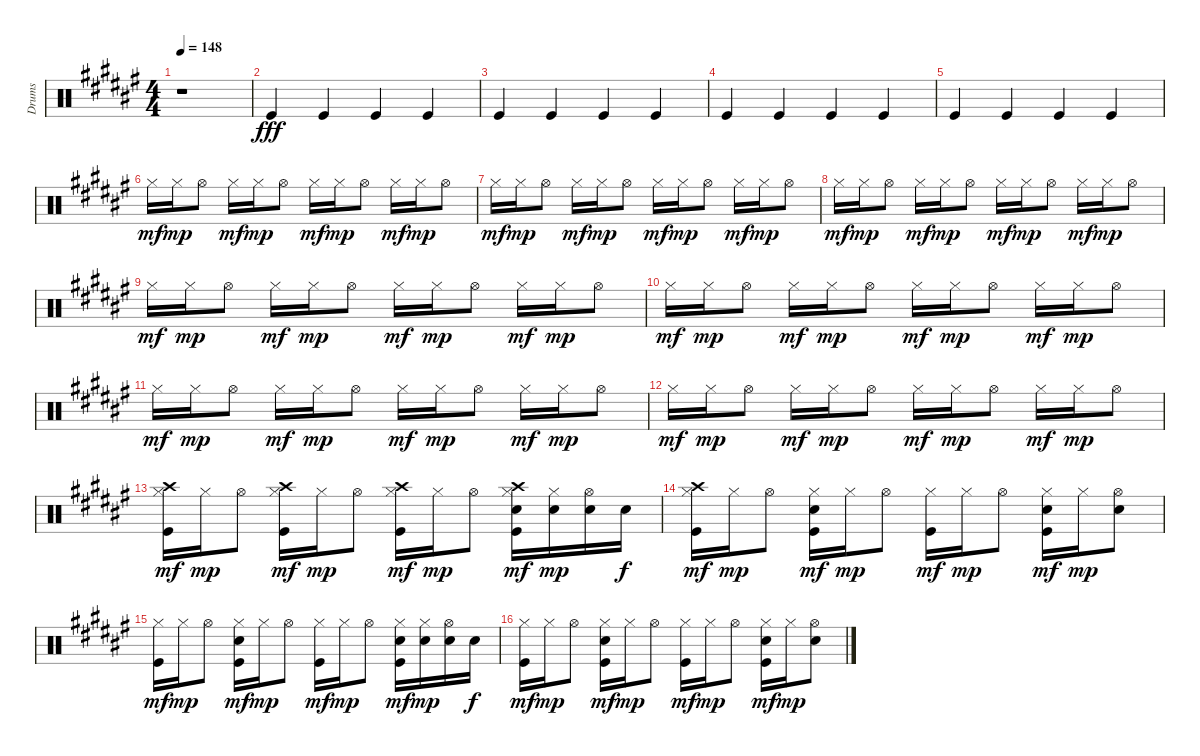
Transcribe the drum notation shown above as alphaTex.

\track ("Drums" "Drums") {instrument percussion}
\staff {score}
\articulation defaults
\ts (4 4)
\tempo 148
\clef neutral
\ks d#minor
r.1{dy fff} |
"Kick (hit)".4 "Kick (hit)".4 "Kick (hit)".4 "Kick (hit)".4 |
"Kick (hit)".4 "Kick (hit)".4 "Kick (hit)".4 "Kick (hit)".4 |
"Kick (hit)".4 "Kick (hit)".4 "Kick (hit)".4 "Kick (hit)".4 |
"Kick (hit)".4 "Kick (hit)".4 "Kick (hit)".4 "Kick (hit)".4 |
"Hi-Hat (closed)".16{dy mf} "Hi-Hat (closed)".16{dy mp} "Hi-Hat (open)".8 "Hi-Hat (closed)".16{dy mf} "Hi-Hat (closed)".16{dy mp} "Hi-Hat (open)".8 "Hi-Hat (closed)".16{dy mf} "Hi-Hat (closed)".16{dy mp} "Hi-Hat (open)".8 "Hi-Hat (closed)".16{dy mf} "Hi-Hat (closed)".16{dy mp} "Hi-Hat (open)".8 |
"Hi-Hat (closed)".16{dy mf} "Hi-Hat (closed)".16{dy mp} "Hi-Hat (open)".8 "Hi-Hat (closed)".16{dy mf} "Hi-Hat (closed)".16{dy mp} "Hi-Hat (open)".8 "Hi-Hat (closed)".16{dy mf} "Hi-Hat (closed)".16{dy mp} "Hi-Hat (open)".8 "Hi-Hat (closed)".16{dy mf} "Hi-Hat (closed)".16{dy mp} "Hi-Hat (open)".8 |
"Hi-Hat (closed)".16{dy mf} "Hi-Hat (closed)".16{dy mp} "Hi-Hat (open)".8 "Hi-Hat (closed)".16{dy mf} "Hi-Hat (closed)".16{dy mp} "Hi-Hat (open)".8 "Hi-Hat (closed)".16{dy mf} "Hi-Hat (closed)".16{dy mp} "Hi-Hat (open)".8 "Hi-Hat (closed)".16{dy mf} "Hi-Hat (closed)".16{dy mp} "Hi-Hat (open)".8 |
"Hi-Hat (closed)".16{dy mf} "Hi-Hat (closed)".16{dy mp} "Hi-Hat (open)".8 "Hi-Hat (closed)".16{dy mf} "Hi-Hat (closed)".16{dy mp} "Hi-Hat (open)".8 "Hi-Hat (closed)".16{dy mf} "Hi-Hat (closed)".16{dy mp} "Hi-Hat (open)".8 "Hi-Hat (closed)".16{dy mf} "Hi-Hat (closed)".16{dy mp} "Hi-Hat (open)".8 |
"Hi-Hat (closed)".16{dy mf} "Hi-Hat (closed)".16{dy mp} "Hi-Hat (open)".8 "Hi-Hat (closed)".16{dy mf} "Hi-Hat (closed)".16{dy mp} "Hi-Hat (open)".8 "Hi-Hat (closed)".16{dy mf} "Hi-Hat (closed)".16{dy mp} "Hi-Hat (open)".8 "Hi-Hat (closed)".16{dy mf} "Hi-Hat (closed)".16{dy mp} "Hi-Hat (open)".8 |
"Hi-Hat (closed)".16{dy mf} "Hi-Hat (closed)".16{dy mp} "Hi-Hat (open)".8 "Hi-Hat (closed)".16{dy mf} "Hi-Hat (closed)".16{dy mp} "Hi-Hat (open)".8 "Hi-Hat (closed)".16{dy mf} "Hi-Hat (closed)".16{dy mp} "Hi-Hat (open)".8 "Hi-Hat (closed)".16{dy mf} "Hi-Hat (closed)".16{dy mp} "Hi-Hat (open)".8 |
"Hi-Hat (closed)".16{dy mf} "Hi-Hat (closed)".16{dy mp} "Hi-Hat (open)".8 "Hi-Hat (closed)".16{dy mf} "Hi-Hat (closed)".16{dy mp} "Hi-Hat (open)".8 "Hi-Hat (closed)".16{dy mf} "Hi-Hat (closed)".16{dy mp} "Hi-Hat (open)".8 "Hi-Hat (closed)".16{dy mf} "Hi-Hat (closed)".16{dy mp} "Hi-Hat (open)".8 |
("Kick (hit)" "Crash high (hit)" "Hi-Hat (closed)").16{dy mf} "Hi-Hat (closed)".16{dy mp} "Hi-Hat (open)".8 ("Kick (hit)" "Crash high (hit)" "Hi-Hat (closed)").16{dy mf} "Hi-Hat (closed)".16{dy mp} "Hi-Hat (open)".8 ("Kick (hit)" "Crash high (hit)" "Hi-Hat (closed)").16{dy mf} "Hi-Hat (closed)".16{dy mp} "Hi-Hat (open)".8 ("Electric Snare (hit)" "Kick (hit)" "Crash high (hit)" "Hi-Hat (closed)").16{dy mf} ("Electric Snare (hit)" "Hi-Hat (closed)").16{dy mp} ("Electric Snare (hit)" "Hi-Hat (open)").16 "Electric Snare (hit)".16{dy f} |
("Kick (hit)" "Crash high (hit)" "Hi-Hat (closed)").16{dy mf} "Hi-Hat (closed)".16{dy mp} "Hi-Hat (open)".8 ("Electric Snare (hit)" "Kick (hit)" "Hi-Hat (closed)").16{dy mf} "Hi-Hat (closed)".16{dy mp} "Hi-Hat (open)".8 ("Kick (hit)" "Hi-Hat (closed)").16{dy mf} "Hi-Hat (closed)".16{dy mp} "Hi-Hat (open)".8 ("Electric Snare (hit)" "Kick (hit)" "Hi-Hat (closed)").16{dy mf} "Hi-Hat (closed)".16{dy mp} ("Snare (hit) 2" "Hi-Hat (open)").8 |
("Kick (hit)" "Hi-Hat (closed)").16{dy mf} "Hi-Hat (closed)".16{dy mp} "Hi-Hat (open)".8 ("Electric Snare (hit)" "Kick (hit)" "Hi-Hat (closed)").16{dy mf} "Hi-Hat (closed)".16{dy mp} "Hi-Hat (open)".8 ("Kick (hit)" "Hi-Hat (closed)").16{dy mf} "Hi-Hat (closed)".16{dy mp} "Hi-Hat (open)".8 ("Snare (hit) 2" "Kick (hit)" "Hi-Hat (closed)").16{dy mf} ("Snare (hit) 2" "Hi-Hat (closed)").16{dy mp} ("Snare (hit) 2" "Hi-Hat (open)").16 "Snare (hit) 2".16{dy f} |
("Kick (hit)" "Hi-Hat (closed)").16{dy mf} "Hi-Hat (closed)".16{dy mp} "Hi-Hat (open)".8 ("Electric Snare (hit)" "Kick (hit)" "Hi-Hat (closed)").16{dy mf} "Hi-Hat (closed)".16{dy mp} "Hi-Hat (open)".8 ("Kick (hit)" "Hi-Hat (closed)").16{dy mf} "Hi-Hat (closed)".16{dy mp} "Hi-Hat (open)".8 ("Electric Snare (hit)" "Kick (hit)" "Hi-Hat (closed)").16{dy mf} "Hi-Hat (closed)".16{dy mp} ("Snare (hit) 2" "Hi-Hat (open)").8
